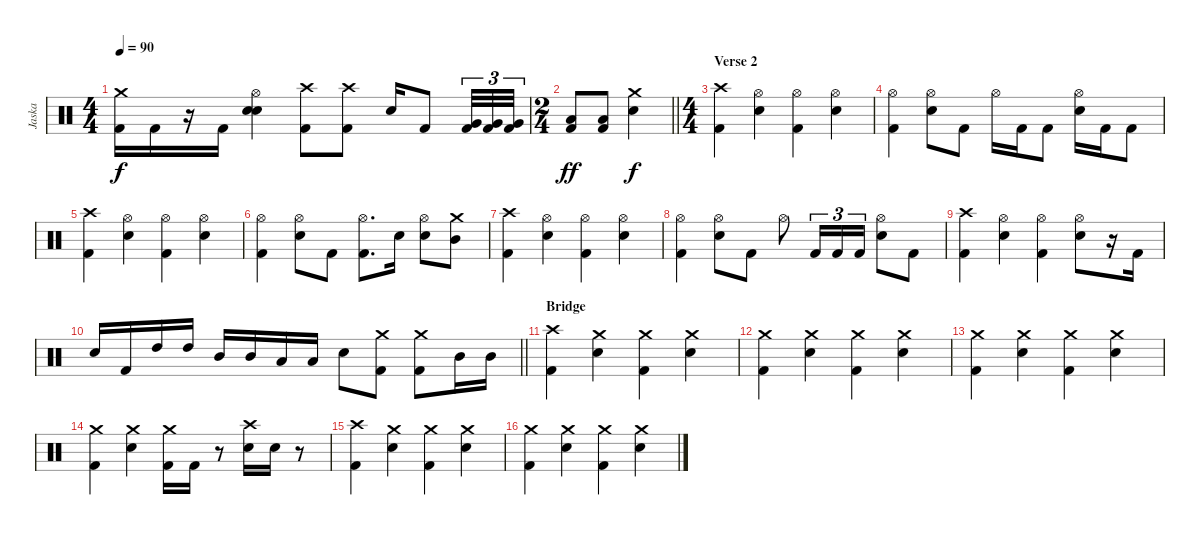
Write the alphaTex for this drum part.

\track ("Jaska" "Jaska") {instrument percussion}
\staff {score}
\articulation defaults
\ts (4 4)
\tempo 90
\clef neutral
\ks c
("Crash medium (hit)" "Kick (hit) 2").16{dy f} "Kick (hit) 2".16 r.16 "Kick (hit) 2".16 ("Hi-Hat (open)" "Snare (hit) 2" "Snare (hit) 2").4 ("Crash high (hit)" "Kick (hit) 2").8 ("Crash high (hit)" "Kick (hit) 2").8 "Snare (hit) 2".16 "Kick (hit) 2".8 ("Very Low Tom (hit)" "Kick (hit) 2").32{tu (3 2)} ("Very Low Tom (hit)" "Kick (hit) 2").32{tu (3 2)} ("Very Low Tom (hit)" "Kick (hit) 2").32{tu (3 2)} |
\ts (2 4)
\barLineRight lightlight
("Low Floor Tom (hit)" "Kick (hit) 2").8{dy ff} ("Low Floor Tom (hit)" "Kick (hit) 2").8 ("Crash medium (hit)" "Snare (hit) 2").4{dy f} |
\ts (4 4)
\section ("" "Verse 2")
("Crash high (hit)" "Kick (hit) 2").4 ("Hi-Hat (open)" "Snare (hit) 2").4 ("Hi-Hat (open)" "Kick (hit) 2").4 ("Hi-Hat (open)" "Snare (hit) 2").4 |
("Hi-Hat (open)" "Kick (hit) 2").4 ("Hi-Hat (open)" "Snare (hit) 2").8 "Kick (hit) 2".8 "Hi-Hat (open)".16 "Kick (hit) 2".16 "Kick (hit) 2".8 ("Hi-Hat (open)" "Snare (hit) 2").16 "Kick (hit) 2".16 "Kick (hit) 2".8 |
("Crash high (hit)" "Kick (hit) 2").4 ("Hi-Hat (open)" "Snare (hit) 2").4 ("Hi-Hat (open)" "Kick (hit) 2").4 ("Hi-Hat (open)" "Snare (hit) 2").4 |
("Hi-Hat (open)" "Kick (hit) 2").4 ("Hi-Hat (open)" "Snare (hit) 2").8 "Kick (hit) 2".8 ("Hi-Hat (open)" "Kick (hit) 2").8{d} "Snare (hit) 2".16 ("Hi-Hat (open)" "Snare (hit) 2").8 ("Crash medium (hit)" "Mid Tom (hit)").8 |
("Crash high (hit)" "Kick (hit) 2").4 ("Hi-Hat (open)" "Snare (hit) 2").4 ("Hi-Hat (open)" "Kick (hit) 2").4 ("Hi-Hat (open)" "Snare (hit) 2").4 |
("Hi-Hat (open)" "Kick (hit) 2").4 ("Hi-Hat (open)" "Snare (hit) 2").8 "Kick (hit) 2".8 "Hi-Hat (open)".8 "Kick (hit) 2".16{tu (3 2)} "Kick (hit) 2".16{tu (3 2)} "Kick (hit) 2".16{tu (3 2)} ("Hi-Hat (open)" "Snare (hit) 2").8 "Kick (hit) 2".8 |
("Crash high (hit)" "Kick (hit) 2").4 ("Hi-Hat (open)" "Snare (hit) 2").4 ("Hi-Hat (open)" "Kick (hit) 2").4 ("Hi-Hat (open)" "Snare (hit) 2").8 r.16 "Kick (hit) 2".16 |
\barLineRight lightlight "Snare (hit) 2".16 "Kick (hit) 2".16 "High Tom (hit)".16 "High Tom (hit)".16 "Mid Tom (hit)".16 "Mid Tom (hit)".16 "Low Tom (hit)".16 "Low Tom (hit)".16 "Snare (hit) 2".8
("Crash medium (hit)" "Kick (hit) 2").8 ("Crash medium (hit)" "Kick (hit) 2").8 "Mid Tom (hit)".16 "Mid Tom (hit)".16 |
\section ("" "Bridge")
("Crash high (hit)" "Kick (hit) 2").4 ("Crash medium (hit)" "Snare (hit) 2").4 ("Crash medium (hit)" "Kick (hit) 2").4 ("Crash medium (hit)" "Snare (hit) 2").4 |
("Crash medium (hit)" "Kick (hit) 2").4 ("Crash medium (hit)" "Snare (hit) 2").4 ("Crash medium (hit)" "Kick (hit) 2").4 ("Crash medium (hit)" "Snare (hit) 2").4 |
("Crash medium (hit)" "Kick (hit) 2").4 ("Crash medium (hit)" "Snare (hit) 2").4 ("Crash medium (hit)" "Kick (hit) 2").4 ("Crash medium (hit)" "Snare (hit) 2").4 |
("Crash medium (hit)" "Kick (hit) 2").4 ("Crash medium (hit)" "Snare (hit) 2").4 ("Crash medium (hit)" "Kick (hit) 2").16 "Kick (hit) 2".16 r.8 ("Crash high (hit)" "Snare (hit) 2").16 "Snare (hit) 2".16 r.8 |
("Crash high (hit)" "Kick (hit) 2").4 ("Crash medium (hit)" "Snare (hit) 2").4 ("Crash medium (hit)" "Kick (hit) 2").4 ("Crash medium (hit)" "Snare (hit) 2").4 |
("Crash medium (hit)" "Kick (hit) 2").4 ("Crash medium (hit)" "Snare (hit) 2").4 ("Crash medium (hit)" "Kick (hit) 2").4 ("Crash medium (hit)" "Snare (hit) 2").4
